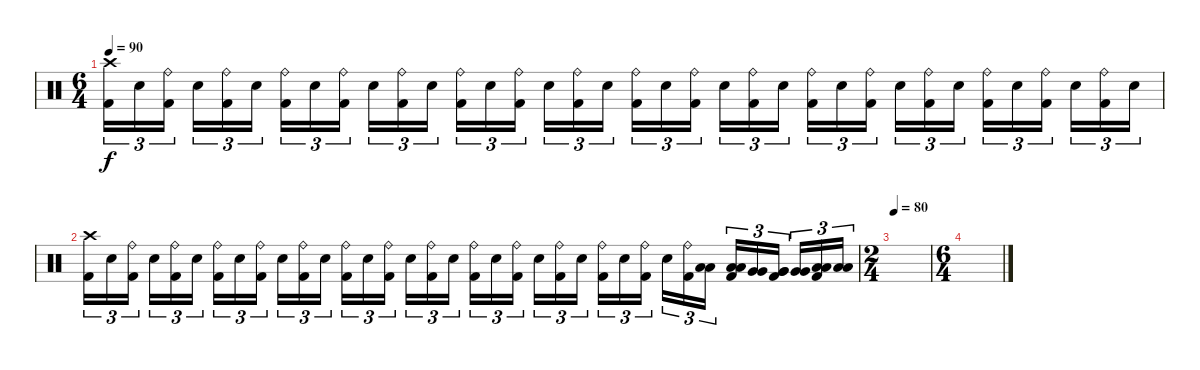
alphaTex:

\track "" {instrument percussion}
\staff {score}
\articulation defaults
\ts (6 4)
\tempo 90
\clef neutral
\ks c
("Crash high (hit)" "Kick (hit) 2").16{tu (3 2) dy f} "Electric Snare (hit)".16{tu (3 2)} ("Ride (bell)" "Kick (hit) 2").16{tu (3 2)} "Electric Snare (hit)".16{tu (3 2)} ("Ride (bell)" "Kick (hit) 2").16{tu (3 2)} "Electric Snare (hit)".16{tu (3 2)} ("Ride (bell)" "Kick (hit) 2").16{tu (3 2)} "Electric Snare (hit)".16{tu (3 2)} ("Ride (bell)" "Kick (hit) 2").16{tu (3 2)} "Electric Snare (hit)".16{tu (3 2)} ("Ride (bell)" "Kick (hit) 2").16{tu (3 2)} "Electric Snare (hit)".16{tu (3 2)} ("Ride (bell)" "Kick (hit) 2").16{tu (3 2)} "Electric Snare (hit)".16{tu (3 2)} ("Ride (bell)" "Kick (hit) 2").16{tu (3 2)} "Electric Snare (hit)".16{tu (3 2)} ("Ride (bell)" "Kick (hit) 2").16{tu (3 2)} "Electric Snare (hit)".16{tu (3 2)} ("Ride (bell)" "Kick (hit) 2").16{tu (3 2)} "Electric Snare (hit)".16{tu (3 2)} ("Ride (bell)" "Kick (hit) 2").16{tu (3 2)} "Electric Snare (hit)".16{tu (3 2)} ("Ride (bell)" "Kick (hit) 2").16{tu (3 2)} "Electric Snare (hit)".16{tu (3 2)} ("Ride (bell)" "Kick (hit) 2").16{tu (3 2)} "Electric Snare (hit)".16{tu (3 2)} ("Ride (bell)" "Kick (hit) 2").16{tu (3 2)} "Electric Snare (hit)".16{tu (3 2)} ("Ride (bell)" "Kick (hit) 2").16{tu (3 2)} "Electric Snare (hit)".16{tu (3 2)} ("Ride (bell)" "Kick (hit) 2").16{tu (3 2)} "Electric Snare (hit)".16{tu (3 2)} ("Ride (bell)" "Kick (hit) 2").16{tu (3 2)} "Electric Snare (hit)".16{tu (3 2)} ("Ride (bell)" "Kick (hit) 2").16{tu (3 2)} "Electric Snare (hit)".16{tu (3 2)} |
("Crash high (hit)" "Kick (hit) 2").16{tu (3 2)} "Electric Snare (hit)".16{tu (3 2)} ("Ride (bell)" "Kick (hit) 2").16{tu (3 2)} "Electric Snare (hit)".16{tu (3 2)} ("Ride (bell)" "Kick (hit) 2").16{tu (3 2)} "Electric Snare (hit)".16{tu (3 2)} ("Ride (bell)" "Kick (hit) 2").16{tu (3 2)} "Electric Snare (hit)".16{tu (3 2)} ("Ride (bell)" "Kick (hit) 2").16{tu (3 2)} "Electric Snare (hit)".16{tu (3 2)} ("Ride (bell)" "Kick (hit) 2").16{tu (3 2)} "Electric Snare (hit)".16{tu (3 2)} ("Ride (bell)" "Kick (hit) 2").16{tu (3 2)} "Electric Snare (hit)".16{tu (3 2)} ("Ride (bell)" "Kick (hit) 2").16{tu (3 2)} "Electric Snare (hit)".16{tu (3 2)} ("Ride (bell)" "Kick (hit) 2").16{tu (3 2)} "Electric Snare (hit)".16{tu (3 2)} ("Ride (bell)" "Kick (hit) 2").16{tu (3 2)} "Electric Snare (hit)".16{tu (3 2)} ("Ride (bell)" "Kick (hit) 2").16{tu (3 2)} "Electric Snare (hit)".16{tu (3 2)} ("Ride (bell)" "Kick (hit) 2").16{tu (3 2)} "Electric Snare (hit)".16{tu (3 2)} ("Ride (bell)" "Kick (hit) 2").16{tu (3 2)} "Electric Snare (hit)".16{tu (3 2)} ("Ride (bell)" "Kick (hit) 2").16{tu (3 2)} "Electric Snare (hit)".16{tu (3 2)} ("Ride (bell)" "Kick (hit) 2").16{tu (3 2)} ("Low Tom (hit)" "Low Tom (hit)").16{tu (3 2)} ("Low Tom (hit)" "Low Tom (hit)" "Kick (hit) 2").16{tu (3 2)} ("Very Low Tom (hit)" "Very Low Tom (hit)").16{tu (3 2)} ("Very Low Tom (hit)" "Very Low Tom (hit)" "Kick (hit) 2").16{tu (3 2)} ("Very Low Tom (hit)" "Very Low Tom (hit)").16{tu (3 2)} ("Low Floor Tom (hit)" "Low Floor Tom (hit)" "Kick (hit) 2").16{tu (3 2)} ("Low Floor Tom (hit)" "Low Floor Tom (hit)").16{tu (3 2)} |
\ts (2 4)
\tempo 80
|
\ts (6 4)
